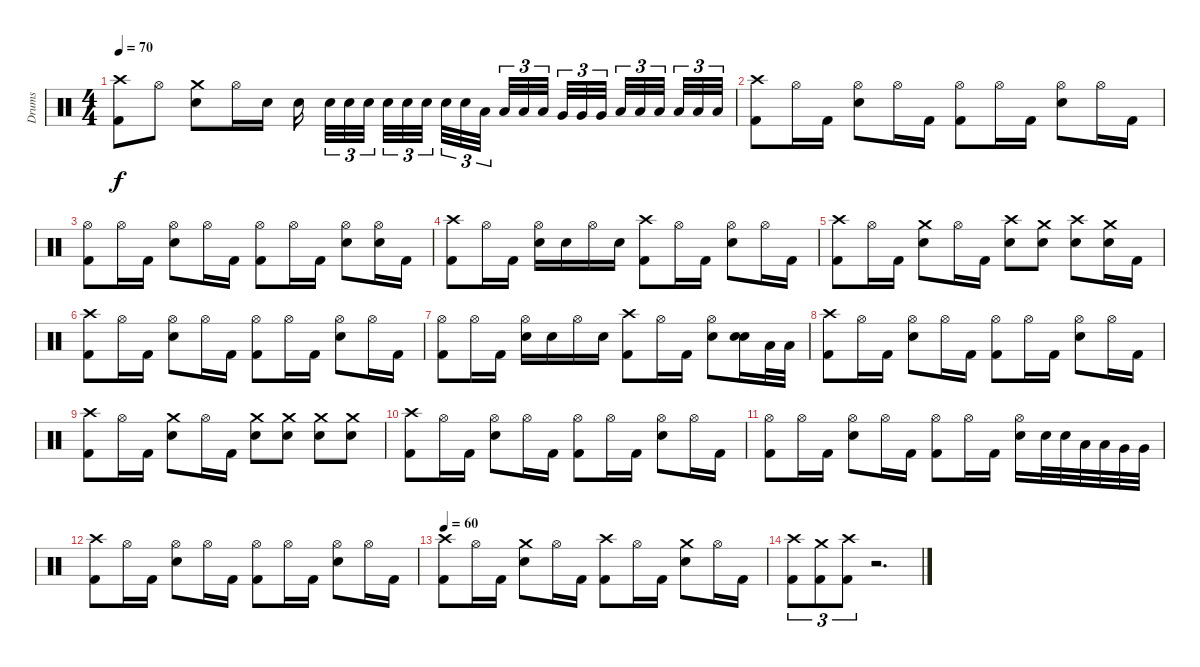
\track ("Drums" "Drums") {instrument percussion}
\staff {score}
\articulation defaults
\ts (4 4)
\tempo 70
\clef neutral
\ks c
("Crash high (hit)" "Kick (hit) 2").8{dy f} "Hi-Hat (open)".8 ("Crash medium (hit)" "Electric Snare (hit)").8 "Hi-Hat (open)".16 "Electric Snare (hit)".16 "Electric Snare (hit)".16 "Electric Snare (hit)".32{tu (3 2)} "Electric Snare (hit)".32{tu (3 2)} "Electric Snare (hit)".32{tu (3 2)} "Electric Snare (hit)".32{tu (3 2)} "Electric Snare (hit)".32{tu (3 2)} "Electric Snare (hit)".32{tu (3 2)} "Electric Snare (hit)".32{tu (3 2)} "Electric Snare (hit)".32{tu (3 2)} "Low Tom (hit)".32{tu (3 2)} "Low Tom (hit)".32{tu (3 2)} "Low Tom (hit)".32{tu (3 2)} "Low Tom (hit)".32{tu (3 2)} "Very Low Tom (hit)".32{tu (3 2)} "Very Low Tom (hit)".32{tu (3 2)} "Very Low Tom (hit)".32{tu (3 2)} "Low Floor Tom (hit)".32{tu (3 2)} "Low Floor Tom (hit)".32{tu (3 2)} "Low Floor Tom (hit)".32{tu (3 2)} "Low Floor Tom (hit)".32{tu (3 2)} "Low Floor Tom (hit)".32{tu (3 2)} "Low Floor Tom (hit)".32{tu (3 2)} |
("Crash high (hit)" "Kick (hit) 2").8 "Hi-Hat (open)".16 "Kick (hit) 2".16 ("Hi-Hat (open)" "Electric Snare (hit)").8 "Hi-Hat (open)".16 "Kick (hit) 2".16 ("Hi-Hat (open)" "Kick (hit) 2").8 "Hi-Hat (open)".16 "Kick (hit) 2".16 ("Hi-Hat (open)" "Electric Snare (hit)").8 "Hi-Hat (open)".16 "Kick (hit) 2".16 |
("Hi-Hat (open)" "Kick (hit) 2").8 "Hi-Hat (open)".16 "Kick (hit) 2".16 ("Hi-Hat (open)" "Electric Snare (hit)").8 "Hi-Hat (open)".16 "Kick (hit) 2".16 ("Hi-Hat (open)" "Kick (hit) 2").8 "Hi-Hat (open)".16 "Kick (hit) 2".16 ("Hi-Hat (open)" "Electric Snare (hit)").8 ("Hi-Hat (open)" "Electric Snare (hit)").16 "Kick (hit) 2".16 |
("Crash high (hit)" "Kick (hit) 2").8 "Hi-Hat (open)".16 "Kick (hit) 2".16 ("Hi-Hat (open)" "Electric Snare (hit)").16 "Electric Snare (hit)".16 "Hi-Hat (open)".16 "Electric Snare (hit)".16 ("Crash high (hit)" "Kick (hit) 2").8 "Hi-Hat (open)".16 "Kick (hit) 2".16 ("Hi-Hat (open)" "Electric Snare (hit)").8 "Hi-Hat (open)".16 "Kick (hit) 2".16 |
("Crash high (hit)" "Kick (hit) 2").8 "Hi-Hat (open)".16 "Kick (hit) 2".16 ("Crash medium (hit)" "Electric Snare (hit)").8 "Hi-Hat (open)".16 "Kick (hit) 2".16 ("Crash high (hit)" "Electric Snare (hit)").8 ("Crash medium (hit)" "Electric Snare (hit)").8 ("Crash high (hit)" "Electric Snare (hit)").8 ("Crash medium (hit)" "Electric Snare (hit)").16 "Kick (hit) 2".16 |
("Crash high (hit)" "Kick (hit) 2").8 "Hi-Hat (open)".16 "Kick (hit) 2".16 ("Hi-Hat (open)" "Electric Snare (hit)").8 "Hi-Hat (open)".16 "Kick (hit) 2".16 ("Hi-Hat (open)" "Kick (hit) 2").8 "Hi-Hat (open)".16 "Kick (hit) 2".16 ("Hi-Hat (open)" "Electric Snare (hit)").8 "Hi-Hat (open)".16 "Kick (hit) 2".16 |
("Hi-Hat (open)" "Kick (hit) 2").8 "Hi-Hat (open)".16 "Kick (hit) 2".16 ("Hi-Hat (open)" "Electric Snare (hit)").16 "Electric Snare (hit)".16 "Hi-Hat (open)".16 "Electric Snare (hit)".16 ("Crash high (hit)" "Kick (hit) 2").8 "Hi-Hat (open)".16 "Kick (hit) 2".16 ("Hi-Hat (open)" "Electric Snare (hit)").8 ("Electric Snare (hit)" "Electric Snare (hit)").16{bu 60} "Low Tom (hit)".32 "Low Tom (hit)".32 |
("Crash high (hit)" "Kick (hit) 2").8 "Hi-Hat (open)".16 "Kick (hit) 2".16 ("Hi-Hat (open)" "Electric Snare (hit)").8 "Hi-Hat (open)".16 "Kick (hit) 2".16 ("Hi-Hat (open)" "Kick (hit) 2").8 "Hi-Hat (open)".16 "Kick (hit) 2".16 ("Hi-Hat (open)" "Electric Snare (hit)").8 "Hi-Hat (open)".16 "Kick (hit) 2".16 |
("Crash high (hit)" "Kick (hit) 2").8 "Hi-Hat (open)".16 "Kick (hit) 2".16 ("Crash medium (hit)" "Electric Snare (hit)").8 "Hi-Hat (open)".16 "Kick (hit) 2".16 ("Crash medium (hit)" "Electric Snare (hit)").8 ("Crash medium (hit)" "Electric Snare (hit)").8 ("Crash medium (hit)" "Electric Snare (hit)").8 ("Crash medium (hit)" "Electric Snare (hit)").8 |
("Crash high (hit)" "Kick (hit) 2").8 "Hi-Hat (open)".16 "Kick (hit) 2".16 ("Hi-Hat (open)" "Electric Snare (hit)").8 "Hi-Hat (open)".16 "Kick (hit) 2".16 ("Hi-Hat (open)" "Kick (hit) 2").8 "Hi-Hat (open)".16 "Kick (hit) 2".16 ("Hi-Hat (open)" "Electric Snare (hit)").8 "Hi-Hat (open)".16 "Kick (hit) 2".16 |
("Hi-Hat (open)" "Kick (hit) 2").8 "Hi-Hat (open)".16 "Kick (hit) 2".16 ("Hi-Hat (open)" "Electric Snare (hit)").8 "Hi-Hat (open)".16 "Kick (hit) 2".16 ("Hi-Hat (open)" "Kick (hit) 2").8 "Hi-Hat (open)".16 "Kick (hit) 2".16 ("Hi-Hat (open)" "Electric Snare (hit)").16 "Electric Snare (hit)".32 "Electric Snare (hit)".32 "Low Tom (hit)".32 "Low Tom (hit)".32 "Very Low Tom (hit)".32 "Very Low Tom (hit)".32 |
("Crash high (hit)" "Kick (hit) 2").8 "Hi-Hat (open)".16 "Kick (hit) 2".16 ("Hi-Hat (open)" "Electric Snare (hit)").8 "Hi-Hat (open)".16 "Kick (hit) 2".16 ("Hi-Hat (open)" "Kick (hit) 2").8 "Hi-Hat (open)".16 "Kick (hit) 2".16 ("Hi-Hat (open)" "Electric Snare (hit)").8 "Hi-Hat (open)".16 "Kick (hit) 2".16 |
\tempo 60
("Crash high (hit)" "Kick (hit) 2").8 "Hi-Hat (open)".16 "Kick (hit) 2".16 ("Crash medium (hit)" "Electric Snare (hit)").8 "Hi-Hat (open)".16 "Kick (hit) 2".16 ("Crash high (hit)" "Kick (hit) 2").8 "Hi-Hat (open)".16 "Kick (hit) 2".16 ("Crash medium (hit)" "Electric Snare (hit)").8 "Hi-Hat (open)".16 "Kick (hit) 2".16 |
("Crash high (hit)" "Kick (hit) 2").8{tu (3 2)} ("Crash medium (hit)" "Kick (hit) 2").8{tu (3 2)} ("Crash high (hit)" "Kick (hit) 2").8{tu (3 2)} r.2{d}
